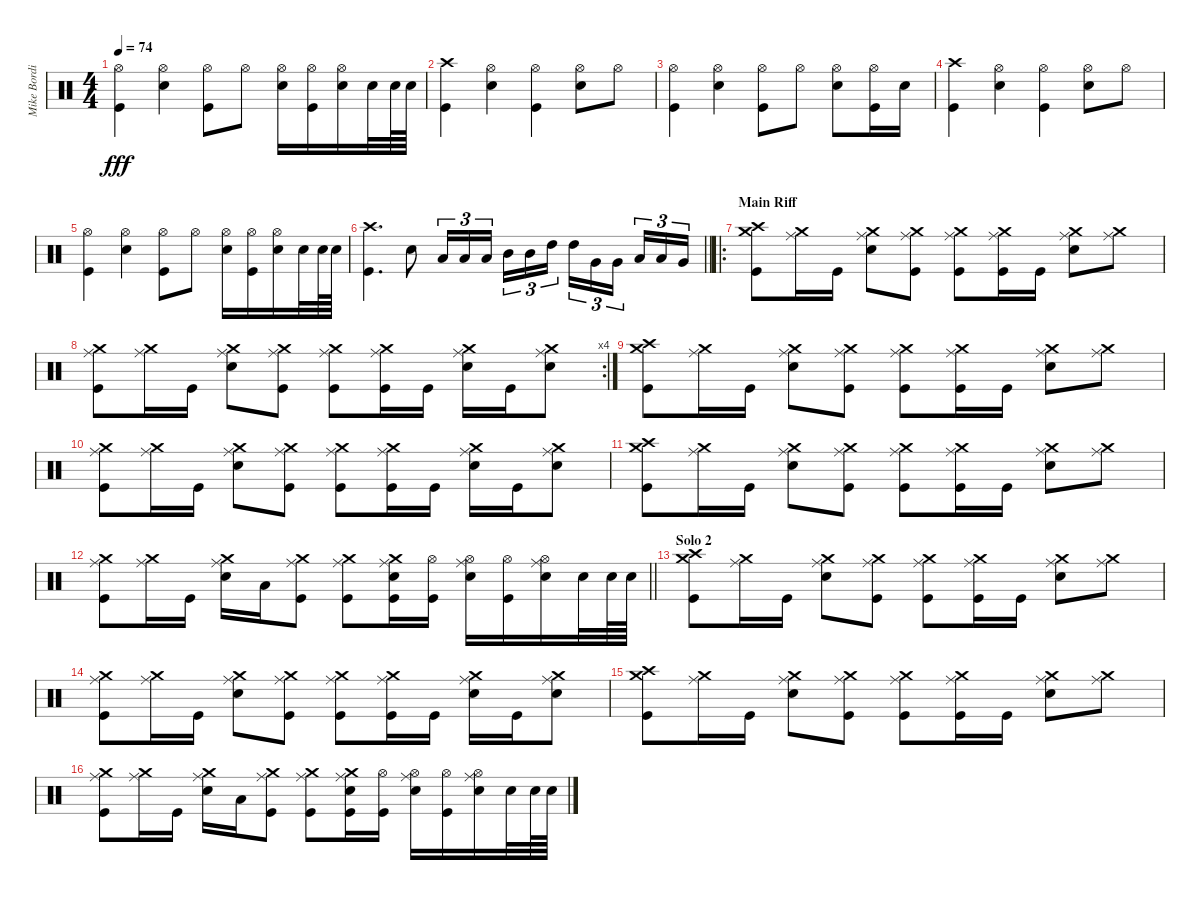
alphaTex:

\track ("Mike Bordin" "Mike Bordi") {instrument percussion}
\staff {score}
\articulation defaults
\ts (4 4)
\tempo 74
\clef neutral
\ks c
("Hi-Hat (open)" "Kick (hit)").4{dy fff} ("Hi-Hat (open)" "Snare (hit) 2").4 ("Hi-Hat (open)" "Kick (hit)").8 "Hi-Hat (open)".8 ("Hi-Hat (open)" "Snare (hit) 2").16 ("Hi-Hat (open)" "Kick (hit)").16 ("Hi-Hat (open)" "Snare (hit) 2").16 "Snare (hit) 2".32 "Snare (hit) 2".64 "Snare (hit) 2".64 |
("Crash high (hit)" "Kick (hit)").4 ("Hi-Hat (open)" "Snare (hit) 2").4 ("Hi-Hat (open)" "Kick (hit)").4 ("Hi-Hat (open)" "Snare (hit) 2").8 "Hi-Hat (open)".8 |
("Hi-Hat (open)" "Kick (hit)").4 ("Hi-Hat (open)" "Snare (hit) 2").4 ("Hi-Hat (open)" "Kick (hit)").8 "Hi-Hat (open)".8 ("Hi-Hat (open)" "Snare (hit) 2").8 ("Hi-Hat (open)" "Kick (hit)").16 "Snare (hit) 2".16 |
("Crash high (hit)" "Kick (hit)").4 ("Hi-Hat (open)" "Snare (hit) 2").4 ("Hi-Hat (open)" "Kick (hit)").4 ("Hi-Hat (open)" "Snare (hit) 2").8 "Hi-Hat (open)".8 |
("Hi-Hat (open)" "Kick (hit)").4 ("Hi-Hat (open)" "Snare (hit) 2").4 ("Hi-Hat (open)" "Kick (hit)").8 "Hi-Hat (open)".8 ("Hi-Hat (open)" "Snare (hit) 2").16 ("Hi-Hat (open)" "Kick (hit)").16 ("Hi-Hat (open)" "Snare (hit) 2").16 "Snare (hit) 2".32 "Snare (hit) 2".64 "Snare (hit) 2".64 |
\barLineRight lightlight
("Crash high (hit)" "Kick (hit)").4{d} "Snare (hit) 2".8 "Low Tom (hit)".16{tu (3 2)} "Low Tom (hit)".16{tu (3 2)} "Low Tom (hit)".16{tu (3 2) beam splitsecondary} "Mid Tom (hit)".16{tu (3 2)} "Mid Tom (hit)".16{tu (3 2)} "High Tom (hit)".16{tu (3 2)} "High Tom (hit)".16{tu (3 2)} "Very Low Tom (hit)".16{tu (3 2)} "Very Low Tom (hit)".16{tu (3 2) beam splitsecondary} "Low Tom (hit)".16{tu (3 2)} "Low Floor Tom (hit)".16{tu (3 2)} "Very Low Tom (hit)".16{tu (3 2)} |
\ro
\section ("" "Main Riff")
("Crash medium (hit)" "Crash high (hit)" "Kick (hit)").8 ("Crash medium (hit)" "Ride (middle)").16 "Kick (hit)".16 ("Crash medium (hit)" "Ride (middle)" "Snare (hit) 2").8 ("Crash medium (hit)" "Ride (middle)" "Kick (hit)").8 ("Crash medium (hit)" "Ride (middle)" "Kick (hit)").8 ("Crash medium (hit)" "Ride (middle)" "Kick (hit)").16 "Kick (hit)".16 ("Crash medium (hit)" "Ride (middle)" "Snare (hit) 2").8 ("Crash medium (hit)" "Ride (middle)").8 |
\rc 4
("Crash medium (hit)" "Ride (middle)" "Kick (hit)").8 ("Crash medium (hit)" "Ride (middle)").16 "Kick (hit)".16 ("Crash medium (hit)" "Ride (middle)" "Snare (hit) 2").8 ("Crash medium (hit)" "Ride (middle)" "Kick (hit)").8 ("Crash medium (hit)" "Ride (middle)" "Kick (hit)").8 ("Crash medium (hit)" "Ride (middle)" "Kick (hit)").16 "Kick (hit)".16 ("Crash medium (hit)" "Ride (middle)" "Snare (hit) 2").16 "Kick (hit)".16 ("Crash medium (hit)" "Ride (middle)" "Snare (hit) 2").8 |
("Crash medium (hit)" "Crash high (hit)" "Kick (hit)").8 ("Crash medium (hit)" "Ride (middle)").16 "Kick (hit)".16 ("Crash medium (hit)" "Ride (middle)" "Snare (hit) 2").8 ("Crash medium (hit)" "Ride (middle)" "Kick (hit)").8 ("Crash medium (hit)" "Ride (middle)" "Kick (hit)").8 ("Crash medium (hit)" "Ride (middle)" "Kick (hit)").16 "Kick (hit)".16 ("Crash medium (hit)" "Ride (middle)" "Snare (hit) 2").8 ("Crash medium (hit)" "Ride (middle)").8 |
("Crash medium (hit)" "Ride (middle)" "Kick (hit)").8 ("Crash medium (hit)" "Ride (middle)").16 "Kick (hit)".16 ("Crash medium (hit)" "Ride (middle)" "Snare (hit) 2").8 ("Crash medium (hit)" "Ride (middle)" "Kick (hit)").8 ("Crash medium (hit)" "Ride (middle)" "Kick (hit)").8 ("Crash medium (hit)" "Ride (middle)" "Kick (hit)").16 "Kick (hit)".16 ("Crash medium (hit)" "Ride (middle)" "Snare (hit) 2").16 "Kick (hit)".16 ("Crash medium (hit)" "Ride (middle)" "Snare (hit) 2").8 |
("Crash medium (hit)" "Crash high (hit)" "Kick (hit)").8 ("Crash medium (hit)" "Ride (middle)").16 "Kick (hit)".16 ("Crash medium (hit)" "Ride (middle)" "Snare (hit) 2").8 ("Crash medium (hit)" "Ride (middle)" "Kick (hit)").8 ("Crash medium (hit)" "Ride (middle)" "Kick (hit)").8 ("Crash medium (hit)" "Ride (middle)" "Kick (hit)").16 "Kick (hit)".16 ("Crash medium (hit)" "Ride (middle)" "Snare (hit) 2").8 ("Crash medium (hit)" "Ride (middle)").8 |
\barLineRight lightlight
("Crash medium (hit)" "Ride (middle)" "Kick (hit)").8 ("Crash medium (hit)" "Ride (middle)").16 "Kick (hit)".16 ("Crash medium (hit)" "Ride (middle)" "Snare (hit) 2").16 "Low Tom (hit)".16 ("Crash medium (hit)" "Ride (middle)" "Kick (hit)").8 ("Crash medium (hit)" "Ride (middle)" "Kick (hit)").8 ("Crash medium (hit)" "Ride (middle)" "Snare (hit) 2" "Kick (hit)").16 ("Hi-Hat (open)" "Kick (hit)").16 ("Hi-Hat (open)" "Ride (middle)" "Snare (hit) 2").16 ("Hi-Hat (open)" "Kick (hit)").16 ("Hi-Hat (open)" "Ride (middle)" "Snare (hit) 2").16 "Snare (hit) 2".32 "Snare (hit) 2".64 "Snare (hit) 2".64 |
\section ("" "Solo 2")
("Crash medium (hit)" "Crash high (hit)" "Kick (hit)").8 ("Crash medium (hit)" "Ride (middle)").16 "Kick (hit)".16 ("Crash medium (hit)" "Ride (middle)" "Snare (hit) 2").8 ("Crash medium (hit)" "Ride (middle)" "Kick (hit)").8 ("Crash medium (hit)" "Ride (middle)" "Kick (hit)").8 ("Crash medium (hit)" "Ride (middle)" "Kick (hit)").16 "Kick (hit)".16 ("Crash medium (hit)" "Ride (middle)" "Snare (hit) 2").8 ("Crash medium (hit)" "Ride (middle)").8 |
("Crash medium (hit)" "Ride (middle)" "Kick (hit)").8 ("Crash medium (hit)" "Ride (middle)").16 "Kick (hit)".16 ("Crash medium (hit)" "Ride (middle)" "Snare (hit) 2").8 ("Crash medium (hit)" "Ride (middle)" "Kick (hit)").8 ("Crash medium (hit)" "Ride (middle)" "Kick (hit)").8 ("Crash medium (hit)" "Ride (middle)" "Kick (hit)").16 "Kick (hit)".16 ("Crash medium (hit)" "Ride (middle)" "Snare (hit) 2").16 "Kick (hit)".16 ("Crash medium (hit)" "Ride (middle)" "Snare (hit) 2").8 |
("Crash medium (hit)" "Crash high (hit)" "Kick (hit)").8 ("Crash medium (hit)" "Ride (middle)").16 "Kick (hit)".16 ("Crash medium (hit)" "Ride (middle)" "Snare (hit) 2").8 ("Crash medium (hit)" "Ride (middle)" "Kick (hit)").8 ("Crash medium (hit)" "Ride (middle)" "Kick (hit)").8 ("Crash medium (hit)" "Ride (middle)" "Kick (hit)").16 "Kick (hit)".16 ("Crash medium (hit)" "Ride (middle)" "Snare (hit) 2").8 ("Crash medium (hit)" "Ride (middle)").8 |
("Crash medium (hit)" "Ride (middle)" "Kick (hit)").8 ("Crash medium (hit)" "Ride (middle)").16 "Kick (hit)".16 ("Crash medium (hit)" "Ride (middle)" "Snare (hit) 2").16 "Low Tom (hit)".16 ("Crash medium (hit)" "Ride (middle)" "Kick (hit)").8 ("Crash medium (hit)" "Ride (middle)" "Kick (hit)").8 ("Crash medium (hit)" "Ride (middle)" "Snare (hit) 2" "Kick (hit)").16 ("Hi-Hat (open)" "Kick (hit)").16 ("Hi-Hat (open)" "Ride (middle)" "Snare (hit) 2").16 ("Hi-Hat (open)" "Kick (hit)").16 ("Hi-Hat (open)" "Ride (middle)" "Snare (hit) 2").16 "Snare (hit) 2".32 "Snare (hit) 2".64 "Snare (hit) 2".64
